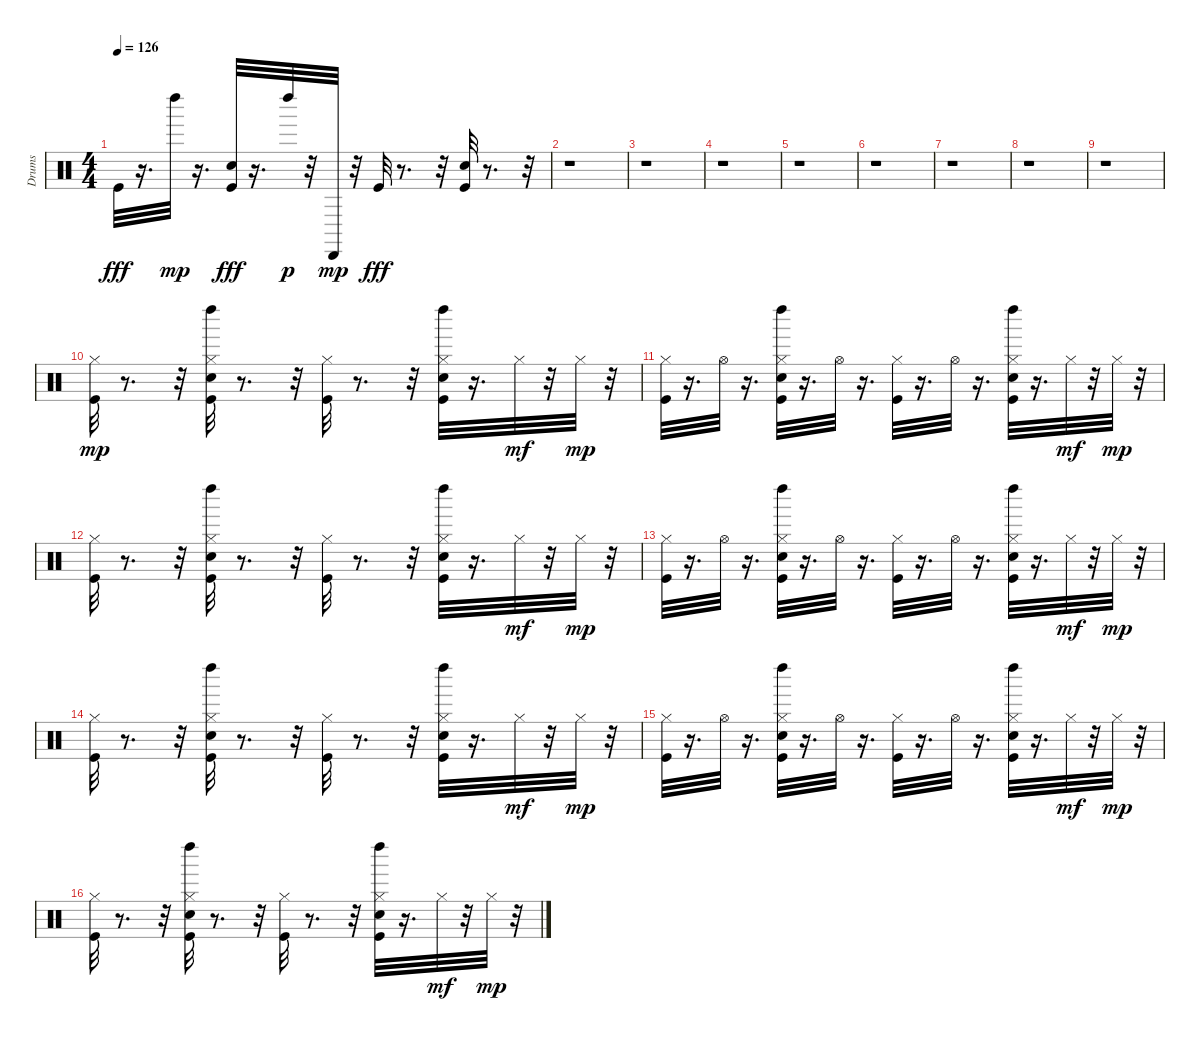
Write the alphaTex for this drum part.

\track ("Drums" "Drums") {instrument percussion}
\staff {score}
\articulation defaults
\ts (4 4)
\tempo 126
\clef neutral
\ks c "Kick (hit)".32{dy fff}
r.16{d} "Left Maraca (hit)".32{dy mp} r.16{d} ("Kick (hit)" "Hand Clap (hit)").32{dy fff} r.16{d} "Left Maraca (hit)".32{dy p} r.32 "Cabasa (hit)".32{dy mp} r.32 "Kick (hit)".32{dy fff} r.8{d} r.32 ("Kick (hit)" "Hand Clap (hit)").32 r.8{d} r.32 |
r.1 |
r.1 |
r.1 |
r.1 |
r.1 |
r.1 |
r.1 |
r.1 |
("Kick (hit)" "Hi-Hat (closed)").32{dy mp} r.8{d} r.32 ("Kick (hit)" "Hand Clap (hit)" "Hi-Hat (closed)" "Left Maraca (hit)").32 r.8{d} r.32 ("Kick (hit)" "Hi-Hat (closed)").32 r.8{d} r.32 ("Kick (hit)" "Hand Clap (hit)" "Hi-Hat (closed)" "Left Maraca (hit)").32 r.16{d} "Hi-Hat (closed)".32{dy mf} r.32 "Hi-Hat (closed)".32{dy mp} r.32 |
("Kick (hit)" "Hi-Hat (closed)").32 r.16{d} "Hi-Hat (open)".32 r.16{d} ("Kick (hit)" "Hand Clap (hit)" "Hi-Hat (closed)" "Left Maraca (hit)").32 r.16{d} "Hi-Hat (open)".32 r.16{d} ("Kick (hit)" "Hi-Hat (closed)").32 r.16{d} "Hi-Hat (open)".32 r.16{d} ("Kick (hit)" "Hand Clap (hit)" "Hi-Hat (closed)" "Left Maraca (hit)").32 r.16{d} "Hi-Hat (closed)".32{dy mf} r.32 "Hi-Hat (closed)".32{dy mp} r.32 |
("Kick (hit)" "Hi-Hat (closed)").32 r.8{d} r.32 ("Kick (hit)" "Hand Clap (hit)" "Hi-Hat (closed)" "Left Maraca (hit)").32 r.8{d} r.32 ("Kick (hit)" "Hi-Hat (closed)").32 r.8{d} r.32 ("Kick (hit)" "Hand Clap (hit)" "Hi-Hat (closed)" "Left Maraca (hit)").32 r.16{d} "Hi-Hat (closed)".32{dy mf} r.32 "Hi-Hat (closed)".32{dy mp} r.32 |
("Kick (hit)" "Hi-Hat (closed)").32 r.16{d} "Hi-Hat (open)".32 r.16{d} ("Kick (hit)" "Hand Clap (hit)" "Hi-Hat (closed)" "Left Maraca (hit)").32 r.16{d} "Hi-Hat (open)".32 r.16{d} ("Kick (hit)" "Hi-Hat (closed)").32 r.16{d} "Hi-Hat (open)".32 r.16{d} ("Kick (hit)" "Hand Clap (hit)" "Hi-Hat (closed)" "Left Maraca (hit)").32 r.16{d} "Hi-Hat (closed)".32{dy mf} r.32 "Hi-Hat (closed)".32{dy mp} r.32 |
("Kick (hit)" "Hi-Hat (closed)").32 r.8{d} r.32 ("Kick (hit)" "Hand Clap (hit)" "Hi-Hat (closed)" "Left Maraca (hit)").32 r.8{d} r.32 ("Kick (hit)" "Hi-Hat (closed)").32 r.8{d} r.32 ("Kick (hit)" "Hand Clap (hit)" "Hi-Hat (closed)" "Left Maraca (hit)").32 r.16{d} "Hi-Hat (closed)".32{dy mf} r.32 "Hi-Hat (closed)".32{dy mp} r.32 |
("Kick (hit)" "Hi-Hat (closed)").32 r.16{d} "Hi-Hat (open)".32 r.16{d} ("Kick (hit)" "Hand Clap (hit)" "Hi-Hat (closed)" "Left Maraca (hit)").32 r.16{d} "Hi-Hat (open)".32 r.16{d} ("Kick (hit)" "Hi-Hat (closed)").32 r.16{d} "Hi-Hat (open)".32 r.16{d} ("Kick (hit)" "Hand Clap (hit)" "Hi-Hat (closed)" "Left Maraca (hit)").32 r.16{d} "Hi-Hat (closed)".32{dy mf} r.32 "Hi-Hat (closed)".32{dy mp} r.32 |
("Kick (hit)" "Hi-Hat (closed)").32 r.8{d} r.32 ("Kick (hit)" "Hand Clap (hit)" "Hi-Hat (closed)" "Left Maraca (hit)").32 r.8{d} r.32 ("Kick (hit)" "Hi-Hat (closed)").32 r.8{d} r.32 ("Kick (hit)" "Hand Clap (hit)" "Hi-Hat (closed)" "Left Maraca (hit)").32 r.16{d} "Hi-Hat (closed)".32{dy mf} r.32 "Hi-Hat (closed)".32{dy mp} r.32
